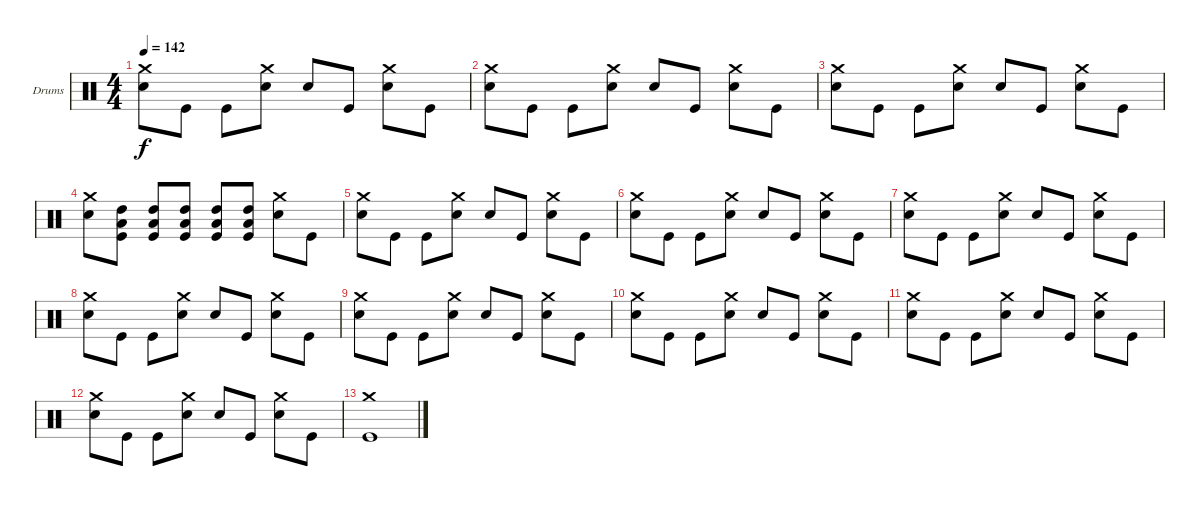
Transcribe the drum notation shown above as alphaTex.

\defaultSystemsLayout 4
\bracketExtendMode groupsimilarinstruments
\firstSystemTrackNameOrientation horizontal
\otherSystemsTrackNameOrientation horizontal
\track ("Drumkit" "Drums") {instrument percussion}
\staff {score}
\articulation defaults
\ts (4 4)
\tempo 142
\clef neutral
\scale
0.333333
\ks c
("Snare (hit) 2" "Crash medium (hit)").8{dy f} "Kick (hit)".8 "Kick (hit)".8 ("Snare (hit) 2" "Crash medium (hit)").8 "Snare (hit) 2".8 "Kick (hit)".8 ("Snare (hit) 2" "Crash medium (hit)").8 "Kick (hit)".8 |
\scale
0.333333 ("Snare (hit) 2" "Crash medium (hit)").8 "Kick (hit)".8 "Kick (hit)".8 ("Snare (hit) 2" "Crash medium (hit)").8 "Snare (hit) 2".8 "Kick (hit)".8 ("Snare (hit) 2" "Crash medium (hit)").8 "Kick (hit)".8 |
\scale
0.333333 ("Snare (hit) 2" "Crash medium (hit)").8 "Kick (hit)".8 "Kick (hit)".8 ("Snare (hit) 2" "Crash medium (hit)").8 "Snare (hit) 2".8 "Kick (hit)".8 ("Snare (hit) 2" "Crash medium (hit)").8 "Kick (hit)".8 |
\scale
0.333333 ("Snare (hit) 2" "Crash medium (hit)").8 ("Kick (hit)" "Low Tom (hit)" "High Tom (hit)").8 ("Kick (hit)" "Low Tom (hit)" "High Tom (hit)").8 ("Kick (hit)" "Low Tom (hit)" "High Tom (hit)").8 ("Kick (hit)" "Low Tom (hit)" "High Tom (hit)").8 ("Kick (hit)" "Low Tom (hit)" "High Tom (hit)").8 ("Snare (hit) 2" "Crash medium (hit)").8 "Kick (hit)".8 |
\scale
0.333333 ("Snare (hit) 2" "Crash medium (hit)").8 "Kick (hit)".8 "Kick (hit)".8 ("Snare (hit) 2" "Crash medium (hit)").8 "Snare (hit) 2".8 "Kick (hit)".8 ("Snare (hit) 2" "Crash medium (hit)").8 "Kick (hit)".8 |
\scale
0.333333 ("Snare (hit) 2" "Crash medium (hit)").8 "Kick (hit)".8 "Kick (hit)".8 ("Snare (hit) 2" "Crash medium (hit)").8 "Snare (hit) 2".8 "Kick (hit)".8 ("Snare (hit) 2" "Crash medium (hit)").8 "Kick (hit)".8 |
\scale
0.333333 ("Snare (hit) 2" "Crash medium (hit)").8 "Kick (hit)".8 "Kick (hit)".8 ("Snare (hit) 2" "Crash medium (hit)").8 "Snare (hit) 2".8 "Kick (hit)".8 ("Snare (hit) 2" "Crash medium (hit)").8 "Kick (hit)".8 |
\scale
0.333333 ("Snare (hit) 2" "Crash medium (hit)").8 "Kick (hit)".8 "Kick (hit)".8 ("Snare (hit) 2" "Crash medium (hit)").8 "Snare (hit) 2".8 "Kick (hit)".8 ("Snare (hit) 2" "Crash medium (hit)").8 "Kick (hit)".8 |
\scale
0.333333 ("Snare (hit) 2" "Crash medium (hit)").8 "Kick (hit)".8 "Kick (hit)".8 ("Snare (hit) 2" "Crash medium (hit)").8 "Snare (hit) 2".8 "Kick (hit)".8 ("Snare (hit) 2" "Crash medium (hit)").8 "Kick (hit)".8 |
\scale
0.333333 ("Snare (hit) 2" "Crash medium (hit)").8 "Kick (hit)".8 "Kick (hit)".8 ("Snare (hit) 2" "Crash medium (hit)").8 "Snare (hit) 2".8 "Kick (hit)".8 ("Snare (hit) 2" "Crash medium (hit)").8 "Kick (hit)".8 |
\scale
0.333333 ("Snare (hit) 2" "Crash medium (hit)").8 "Kick (hit)".8 "Kick (hit)".8 ("Snare (hit) 2" "Crash medium (hit)").8 "Snare (hit) 2".8 "Kick (hit)".8 ("Snare (hit) 2" "Crash medium (hit)").8 "Kick (hit)".8 |
\scale
0.333333 ("Snare (hit) 2" "Crash medium (hit)").8 "Kick (hit)".8 "Kick (hit)".8 ("Snare (hit) 2" "Crash medium (hit)").8 "Snare (hit) 2".8 "Kick (hit)".8 ("Snare (hit) 2" "Crash medium (hit)").8 "Kick (hit)".8 |
("Kick (hit)" "Crash medium (hit)").1 |
\scale
0.333333 |
|
\scale
0.333333
